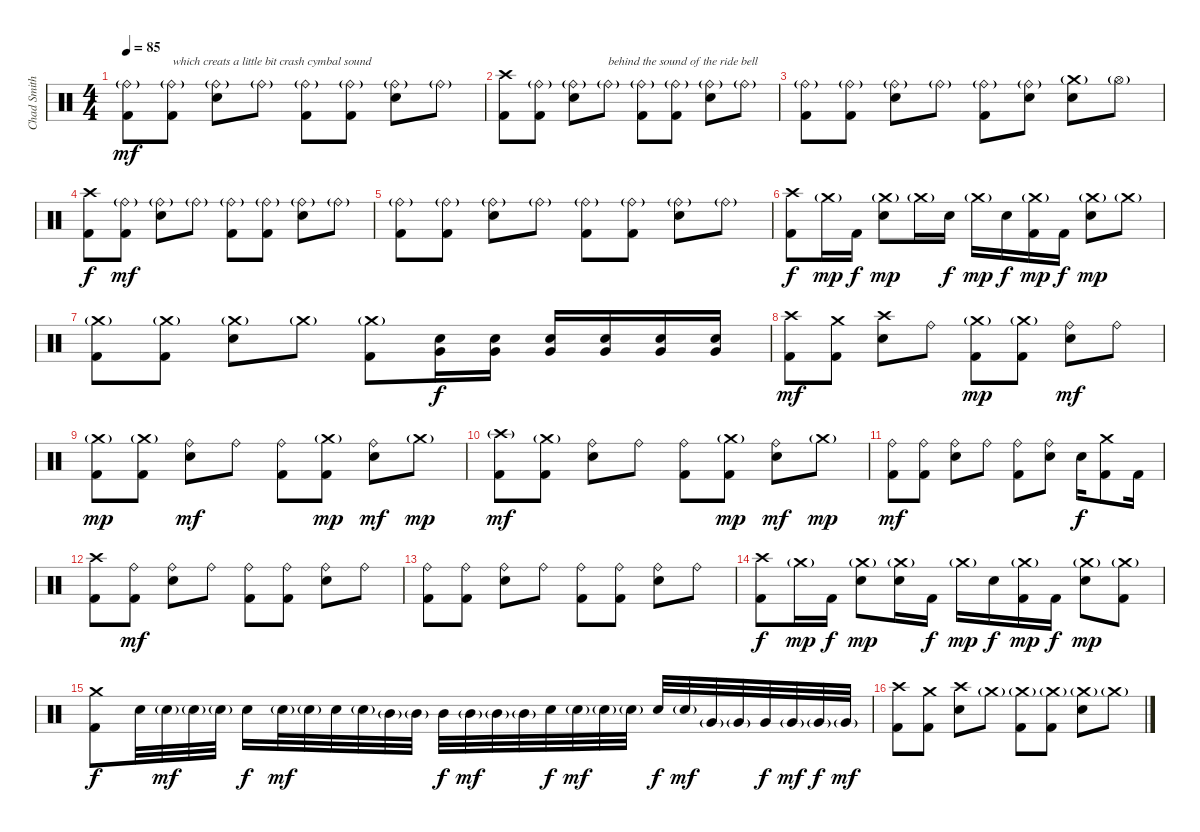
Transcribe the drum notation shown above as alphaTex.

\track ("Chad Smith" "Chad Smith") {instrument percussion}
\staff {score}
\articulation defaults
\ts (4 4)
\tempo 85
\clef neutral
\ks c
("Ride (bell)"{g} "Kick (hit) 2").8{dy mf} ("Ride (bell)"{g} "Kick (hit) 2").8{txt "which creats a little bit crash cymbal sound"} ("Ride (bell)"{g} "Electric Snare (hit)").8 "Ride (bell)"{g}.8 ("Ride (bell)"{g} "Kick (hit) 2").8 ("Ride (bell)"{g} "Kick (hit) 2").8 ("Ride (bell)"{g} "Electric Snare (hit)").8 "Ride (bell)"{g}.8 |
("Crash high (hit)" "Kick (hit) 2").8 ("Ride (bell)"{g} "Kick (hit) 2").8 ("Ride (bell)"{g} "Electric Snare (hit)").8 "Ride (bell)"{g}.8{txt "behind the sound of the ride bell"} ("Ride (bell)"{g} "Kick (hit) 2").8 ("Ride (bell)"{g} "Kick (hit) 2").8 ("Ride (bell)"{g} "Electric Snare (hit)").8 "Ride (bell)"{g}.8 |
("Ride (bell)"{g} "Kick (hit) 2").8 ("Ride (bell)"{g} "Kick (hit) 2").8 ("Ride (bell)"{g} "Electric Snare (hit)").8 "Ride (bell)"{g}.8 ("Ride (bell)"{g} "Kick (hit) 2").8 ("Ride (bell)"{g} "Electric Snare (hit)").8 ("Crash medium (hit)"{g} "Electric Snare (hit)").8 "Hi-Hat (open)"{g}.8 |
("Crash high (hit)" "Kick (hit) 2").8{dy f} ("Ride (bell)"{g} "Kick (hit) 2").8{dy mf} ("Ride (bell)"{g} "Electric Snare (hit)").8 "Ride (bell)"{g}.8 ("Ride (bell)"{g} "Kick (hit) 2").8 ("Ride (bell)"{g} "Kick (hit) 2").8 ("Ride (bell)"{g} "Electric Snare (hit)").8 "Ride (bell)"{g}.8 |
("Ride (bell)"{g} "Kick (hit) 2").8 ("Ride (bell)"{g} "Kick (hit) 2").8 ("Ride (bell)"{g} "Electric Snare (hit)").8 "Ride (bell)"{g}.8 ("Ride (bell)"{g} "Kick (hit) 2").8 ("Ride (bell)"{g} "Kick (hit) 2").8 ("Ride (bell)"{g} "Electric Snare (hit)").8 "Ride (bell)"{g}.8 |
("Crash high (hit)" "Kick (hit) 2").8{dy f} "Crash medium (hit)"{g}.16{dy mp} "Kick (hit) 2".16{dy f} ("Crash medium (hit)"{g} "Electric Snare (hit)").8{dy mp} "Crash medium (hit)"{g}.16 "Electric Snare (hit)".16{dy f} "Crash medium (hit)"{g}.16{dy mp} "Electric Snare (hit)".16{dy f} ("Crash medium (hit)"{g} "Kick (hit) 2").16{dy mp} "Kick (hit) 2".16{dy f} ("Crash medium (hit)"{g} "Electric Snare (hit)").8{dy mp} "Crash medium (hit)"{g}.8 |
("Crash medium (hit)"{g} "Kick (hit) 2").8 ("Crash medium (hit)"{g} "Kick (hit) 2").8 ("Crash medium (hit)"{g} "Electric Snare (hit)").8 "Crash medium (hit)"{g}.8 ("Crash medium (hit)"{g} "Kick (hit) 2").8 ("Electric Snare (hit)" "Very Low Tom (hit)").16{dy f} ("Electric Snare (hit)" "Very Low Tom (hit)").16 ("Electric Snare (hit)" "Very Low Tom (hit)").16 ("Electric Snare (hit)" "Very Low Tom (hit)").16 ("Electric Snare (hit)" "Very Low Tom (hit)").16 ("Electric Snare (hit)" "Very Low Tom (hit)").16 |
("Crash high (hit)" "Kick (hit) 2").8{dy mf} ("Crash medium (hit)" "Kick (hit) 2").8 ("Crash high (hit)" "Electric Snare (hit)").8 "Ride (bell)".8 ("Crash medium (hit)"{g} "Kick (hit) 2").8{dy mp} ("Crash medium (hit)"{g} "Kick (hit) 2").8 ("Ride (bell)" "Electric Snare (hit)").8{dy mf} "Ride (bell)".8 |
("Crash medium (hit)"{g} "Kick (hit) 2").8{dy mp} ("Crash medium (hit)"{g} "Kick (hit) 2").8 ("Ride (bell)" "Electric Snare (hit)").8{dy mf} "Ride (bell)".8 ("Ride (bell)" "Kick (hit) 2").8 ("Crash medium (hit)"{g} "Kick (hit) 2").8{dy mp} ("Ride (bell)" "Electric Snare (hit)").8{dy mf} "Crash medium (hit)"{g}.8{dy mp} |
("Crash high (hit)"{g} "Kick (hit) 2").8{dy mf} ("Crash medium (hit)"{g} "Kick (hit) 2").8 ("Ride (bell)" "Electric Snare (hit)").8 "Ride (bell)".8 ("Ride (bell)" "Kick (hit) 2").8 ("Crash medium (hit)"{g} "Kick (hit) 2").8{dy mp} ("Ride (bell)" "Electric Snare (hit)").8{dy mf} "Crash medium (hit)"{g}.8{dy mp} |
("Ride (bell)" "Kick (hit) 2").8{dy mf} ("Ride (bell)" "Kick (hit) 2").8 ("Ride (bell)" "Electric Snare (hit)").8 "Ride (bell)".8 ("Ride (bell)" "Kick (hit) 2").8 ("Ride (bell)" "Electric Snare (hit)").8 "Electric Snare (hit)".16{dy f} ("Crash medium (hit)" "Kick (hit) 2").8 "Kick (hit) 2".16 |
("Crash high (hit)" "Kick (hit) 2").8 ("Ride (bell)" "Kick (hit) 2").8{dy mf} ("Ride (bell)" "Electric Snare (hit)").8 "Ride (bell)".8 ("Ride (bell)" "Kick (hit) 2").8 ("Ride (bell)" "Kick (hit) 2").8 ("Ride (bell)" "Electric Snare (hit)").8 "Ride (bell)".8 |
("Ride (bell)" "Kick (hit) 2").8 ("Ride (bell)" "Kick (hit) 2").8 ("Ride (bell)" "Electric Snare (hit)").8 "Ride (bell)".8 ("Ride (bell)" "Kick (hit) 2").8 ("Ride (bell)" "Kick (hit) 2").8 ("Ride (bell)" "Electric Snare (hit)").8 "Ride (bell)".8 |
("Crash high (hit)" "Kick (hit) 2").8{dy f} "Crash medium (hit)"{g}.16{dy mp} "Kick (hit) 2".16{dy f} ("Crash medium (hit)"{g} "Electric Snare (hit)").8{dy mp} ("Crash medium (hit)"{g} "Electric Snare (hit)").16 "Kick (hit) 2".16{dy f} "Crash medium (hit)"{g}.16{dy mp} "Electric Snare (hit)".16{dy f} ("Crash medium (hit)"{g} "Kick (hit) 2").16{dy mp} "Kick (hit) 2".16{dy f} ("Crash medium (hit)"{g} "Electric Snare (hit)").8{dy mp} ("Crash medium (hit)"{g} "Kick (hit) 2").8 |
("Crash medium (hit)" "Kick (hit) 2").8{dy f} "Electric Snare (hit)".32 "Electric Snare (hit)"{g}.32{dy mf} "Electric Snare (hit)"{g}.32 "Electric Snare (hit)"{g}.32 "Electric Snare (hit)".16{dy f} "Electric Snare (hit)"{g}.32{dy mf} "Electric Snare (hit)"{g}.32 "Electric Snare (hit)".32 "Electric Snare (hit)"{g}.32 "Mid Tom (hit)"{g}.32 "Mid Tom (hit)"{g}.32 "Mid Tom (hit)".32{dy f} "Mid Tom (hit)"{g}.32{dy mf} "Mid Tom (hit)"{g}.32 "Mid Tom (hit)"{g}.32 "Electric Snare (hit)".32{dy f} "Electric Snare (hit)"{g}.32{dy mf} "Electric Snare (hit)"{g}.32 "Electric Snare (hit)"{g}.32 "Electric Snare (hit)".32{dy f} "Electric Snare (hit)"{g}.32{dy mf} "Very Low Tom (hit)"{g}.32 "Very Low Tom (hit)"{g}.32 "Very Low Tom (hit)".32{dy f} "Very Low Tom (hit)"{g}.32{dy mf} "Very Low Tom (hit)"{g}.32{dy f} "Very Low Tom (hit)"{g}.32{dy mf} |
("Crash high (hit)" "Kick (hit) 2").8 ("Crash medium (hit)" "Kick (hit) 2").8 ("Crash high (hit)" "Electric Snare (hit)").8 "Crash medium (hit)"{g}.8 ("Crash medium (hit)"{g} "Kick (hit) 2").8 ("Crash medium (hit)"{g} "Kick (hit) 2").8 ("Crash medium (hit)"{g} "Electric Snare (hit)").8 "Crash medium (hit)"{g}.8
